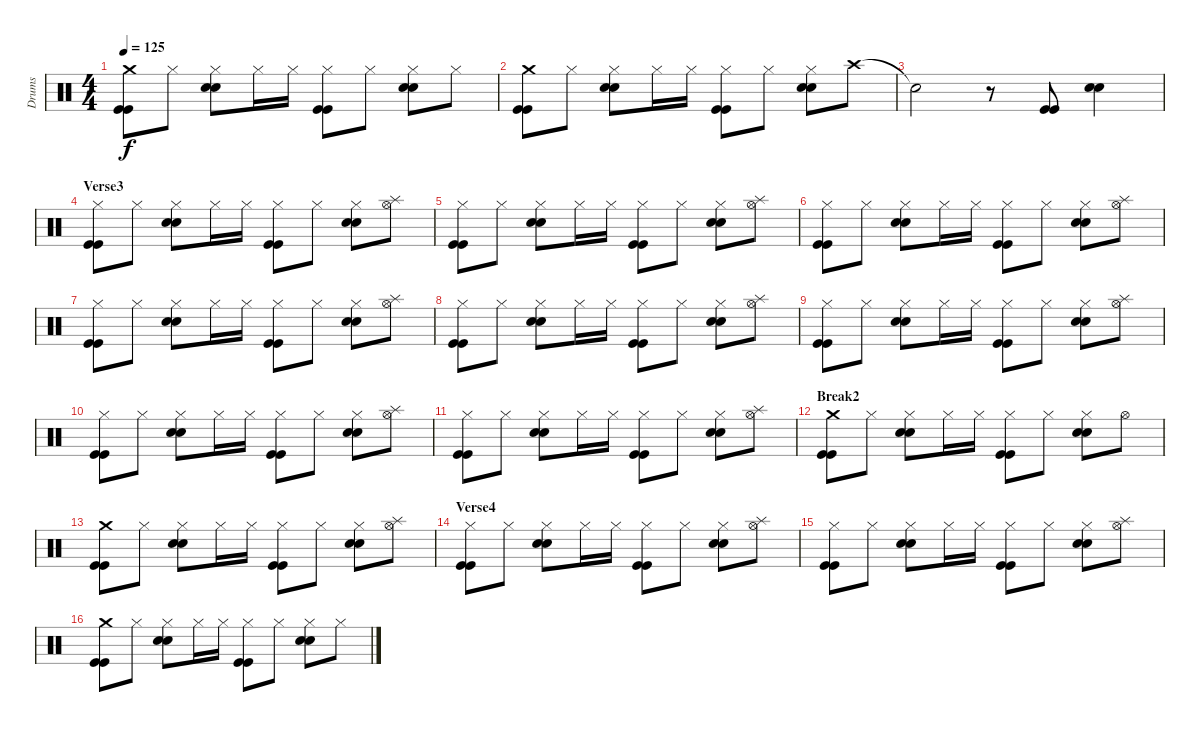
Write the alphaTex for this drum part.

\track ("Drums" "Drums") {instrument percussion}
\staff {score}
\articulation defaults
\ts (4 4)
\tempo 125
\clef neutral
\ks c
("Crash medium (hit)" "Kick (hit)" "Kick (hit)").8{dy f} "Hi-Hat (closed)".8 ("Hi-Hat (closed)" "Electric Snare (hit)" "Electric Snare (hit)").8 "Hi-Hat (closed)".16 "Hi-Hat (closed)".16 ("Hi-Hat (closed)" "Kick (hit)" "Kick (hit)").8 "Hi-Hat (closed)".8 ("Hi-Hat (closed)" "Electric Snare (hit)" "Electric Snare (hit)").8 "Hi-Hat (closed)".8 |
("Crash medium (hit)" "Kick (hit)" "Kick (hit)").8 "Hi-Hat (closed)".8 ("Hi-Hat (closed)" "Electric Snare (hit)" "Electric Snare (hit)").8 "Hi-Hat (closed)".16 "Hi-Hat (closed)".16 ("Hi-Hat (closed)" "Kick (hit)" "Kick (hit)").8 "Hi-Hat (closed)".8 ("Hi-Hat (closed)" "Electric Snare (hit)" "Electric Snare (hit)").8 "Crash high (hit)".8 |
"Snare (hit)"{t}.2 r.8 ("Kick (hit)" "Kick (hit)").8 ("Electric Snare (hit)" "Electric Snare (hit)").4 |
\section ("" "Verse3")
("Hi-Hat (closed)" "Kick (hit)" "Kick (hit)").8 "Hi-Hat (closed)".8 ("Hi-Hat (closed)" "Electric Snare (hit)" "Electric Snare (hit)").8 "Hi-Hat (closed)".16 "Hi-Hat (closed)".16 ("Hi-Hat (closed)" "Kick (hit)" "Kick (hit)").8 "Hi-Hat (closed)".8 ("Hi-Hat (closed)" "Electric Snare (hit)" "Electric Snare (hit)").8 ("Hi-Hat (open)" "Splash (hit)").8 |
("Hi-Hat (closed)" "Kick (hit)" "Kick (hit)").8 "Hi-Hat (closed)".8 ("Hi-Hat (closed)" "Electric Snare (hit)" "Electric Snare (hit)").8 "Hi-Hat (closed)".16 "Hi-Hat (closed)".16 ("Hi-Hat (closed)" "Kick (hit)" "Kick (hit)").8 "Hi-Hat (closed)".8 ("Hi-Hat (closed)" "Electric Snare (hit)" "Electric Snare (hit)").8 ("Hi-Hat (open)" "Splash (hit)").8 |
("Hi-Hat (closed)" "Kick (hit)" "Kick (hit)").8 "Hi-Hat (closed)".8 ("Hi-Hat (closed)" "Electric Snare (hit)" "Electric Snare (hit)").8 "Hi-Hat (closed)".16 "Hi-Hat (closed)".16 ("Hi-Hat (closed)" "Kick (hit)" "Kick (hit)").8 "Hi-Hat (closed)".8 ("Hi-Hat (closed)" "Electric Snare (hit)" "Electric Snare (hit)").8 ("Hi-Hat (open)" "Splash (hit)").8 |
("Hi-Hat (closed)" "Kick (hit)" "Kick (hit)").8 "Hi-Hat (closed)".8 ("Hi-Hat (closed)" "Electric Snare (hit)" "Electric Snare (hit)").8 "Hi-Hat (closed)".16 "Hi-Hat (closed)".16 ("Hi-Hat (closed)" "Kick (hit)" "Kick (hit)").8 "Hi-Hat (closed)".8 ("Hi-Hat (closed)" "Electric Snare (hit)" "Electric Snare (hit)").8 ("Hi-Hat (open)" "Splash (hit)").8 |
("Hi-Hat (closed)" "Kick (hit)" "Kick (hit)").8 "Hi-Hat (closed)".8 ("Hi-Hat (closed)" "Electric Snare (hit)" "Electric Snare (hit)").8 "Hi-Hat (closed)".16 "Hi-Hat (closed)".16 ("Hi-Hat (closed)" "Kick (hit)" "Kick (hit)").8 "Hi-Hat (closed)".8 ("Hi-Hat (closed)" "Electric Snare (hit)" "Electric Snare (hit)").8 ("Hi-Hat (open)" "Splash (hit)").8 |
("Hi-Hat (closed)" "Kick (hit)" "Kick (hit)").8 "Hi-Hat (closed)".8 ("Hi-Hat (closed)" "Electric Snare (hit)" "Electric Snare (hit)").8 "Hi-Hat (closed)".16 "Hi-Hat (closed)".16 ("Hi-Hat (closed)" "Kick (hit)" "Kick (hit)").8 "Hi-Hat (closed)".8 ("Hi-Hat (closed)" "Electric Snare (hit)" "Electric Snare (hit)").8 ("Hi-Hat (open)" "Splash (hit)").8 |
("Hi-Hat (closed)" "Kick (hit)" "Kick (hit)").8 "Hi-Hat (closed)".8 ("Hi-Hat (closed)" "Electric Snare (hit)" "Electric Snare (hit)").8 "Hi-Hat (closed)".16 "Hi-Hat (closed)".16 ("Hi-Hat (closed)" "Kick (hit)" "Kick (hit)").8 "Hi-Hat (closed)".8 ("Hi-Hat (closed)" "Electric Snare (hit)" "Electric Snare (hit)").8 ("Hi-Hat (open)" "Splash (hit)").8 |
("Hi-Hat (closed)" "Kick (hit)" "Kick (hit)").8 "Hi-Hat (closed)".8 ("Hi-Hat (closed)" "Electric Snare (hit)" "Electric Snare (hit)").8 "Hi-Hat (closed)".16 "Hi-Hat (closed)".16 ("Hi-Hat (closed)" "Kick (hit)" "Kick (hit)").8 "Hi-Hat (closed)".8 ("Hi-Hat (closed)" "Electric Snare (hit)" "Electric Snare (hit)").8 ("Hi-Hat (open)" "Splash (hit)").8 |
\section ("" "Break2")
("Crash medium (hit)" "Kick (hit)" "Kick (hit)").8 "Hi-Hat (closed)".8 ("Hi-Hat (closed)" "Electric Snare (hit)" "Electric Snare (hit)").8 "Hi-Hat (closed)".16 "Hi-Hat (closed)".16 ("Hi-Hat (closed)" "Kick (hit)" "Kick (hit)").8 "Hi-Hat (closed)".8 ("Hi-Hat (closed)" "Electric Snare (hit)" "Electric Snare (hit)").8 "Hi-Hat (open)".8 |
("Crash medium (hit)" "Kick (hit)" "Kick (hit)").8 "Hi-Hat (closed)".8 ("Hi-Hat (closed)" "Electric Snare (hit)" "Electric Snare (hit)").8 "Hi-Hat (closed)".16 "Hi-Hat (closed)".16 ("Hi-Hat (closed)" "Kick (hit)" "Kick (hit)").8 "Hi-Hat (closed)".8 ("Hi-Hat (closed)" "Electric Snare (hit)" "Electric Snare (hit)").8 ("Hi-Hat (open)" "Splash (hit)").8 |
\section ("" "Verse4")
("Hi-Hat (closed)" "Kick (hit)" "Kick (hit)").8 "Hi-Hat (closed)".8 ("Hi-Hat (closed)" "Electric Snare (hit)" "Electric Snare (hit)").8 "Hi-Hat (closed)".16 "Hi-Hat (closed)".16 ("Hi-Hat (closed)" "Kick (hit)" "Kick (hit)").8 "Hi-Hat (closed)".8 ("Hi-Hat (closed)" "Electric Snare (hit)" "Electric Snare (hit)").8 ("Hi-Hat (open)" "Splash (hit)").8 |
("Hi-Hat (closed)" "Kick (hit)" "Kick (hit)").8 "Hi-Hat (closed)".8 ("Hi-Hat (closed)" "Electric Snare (hit)" "Electric Snare (hit)").8 "Hi-Hat (closed)".16 "Hi-Hat (closed)".16 ("Hi-Hat (closed)" "Kick (hit)" "Kick (hit)").8 "Hi-Hat (closed)".8 ("Hi-Hat (closed)" "Electric Snare (hit)" "Electric Snare (hit)").8 ("Hi-Hat (open)" "Splash (hit)").8 |
("Crash medium (hit)" "Kick (hit)" "Kick (hit)").8 "Hi-Hat (closed)".8 ("Hi-Hat (closed)" "Electric Snare (hit)" "Electric Snare (hit)").8 "Hi-Hat (closed)".16 "Hi-Hat (closed)".16 ("Hi-Hat (closed)" "Kick (hit)" "Kick (hit)").8 "Hi-Hat (closed)".8 ("Hi-Hat (closed)" "Electric Snare (hit)" "Electric Snare (hit)").8 "Hi-Hat (closed)".8
